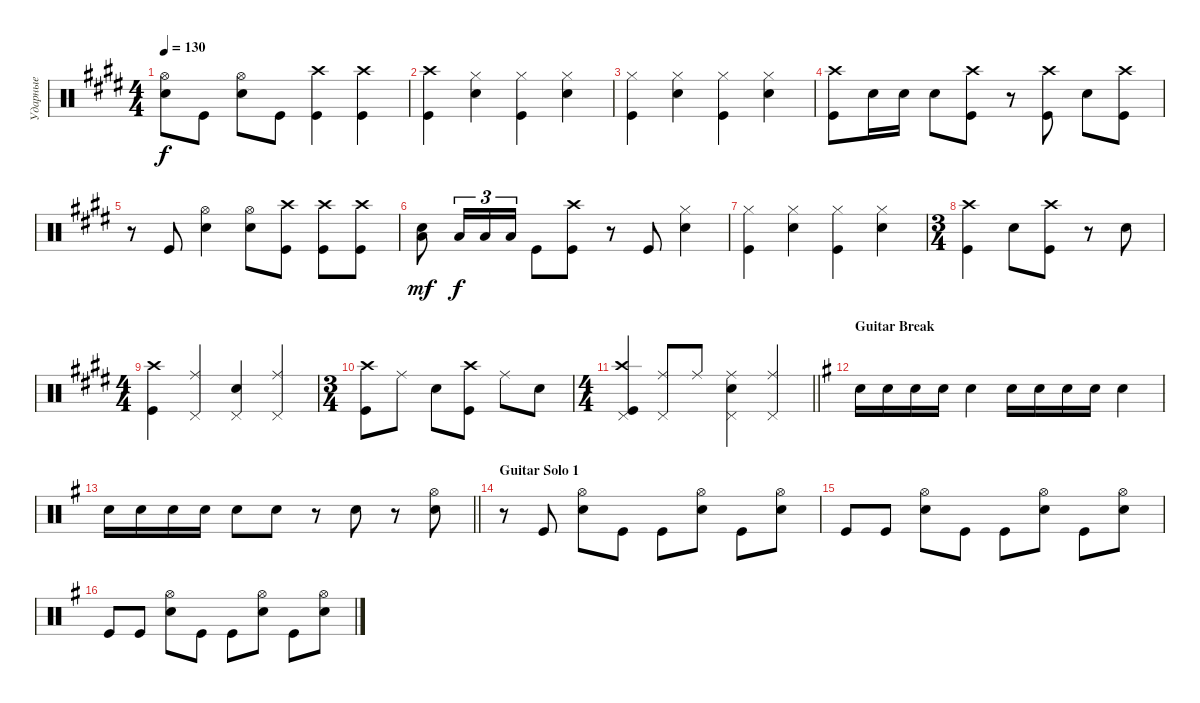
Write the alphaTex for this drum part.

\track ("Ударные" "Ударные") {instrument percussion}
\staff {score}
\articulation defaults
\ts (4 4)
\tempo 130
\clef neutral
\ks c#minor
("Snare (hit) 2" "Hi-Hat (open)").8{dy f} "Kick (hit)".8 ("Snare (hit) 2" "Hi-Hat (open)").8 "Kick (hit)".8 ("Kick (hit)" "Crash high (hit)").4 ("Kick (hit)" "Crash high (hit)").4 |
("Kick (hit)" "Crash high (hit)").4 ("Snare (hit) 2" "Hi-Hat (closed)").4 ("Kick (hit)" "Hi-Hat (closed)").4 ("Snare (hit) 2" "Hi-Hat (closed)").4 |
("Kick (hit)" "Hi-Hat (closed)").4 ("Snare (hit) 2" "Hi-Hat (closed)").4 ("Kick (hit)" "Hi-Hat (closed)").4 ("Snare (hit) 2" "Hi-Hat (closed)").4 |
("Kick (hit)" "Crash high (hit)").8 "Snare (hit) 2".16 "Snare (hit) 2".16 "Snare (hit) 2".8 ("Kick (hit)" "Crash high (hit)").8 r.8 ("Kick (hit)" "Crash high (hit)").8 "Snare (hit) 2".8 ("Kick (hit)" "Crash high (hit)").8 |
r.8 "Kick (hit)".8 ("Snare (hit) 2" "Hi-Hat (open)").4 ("Snare (hit) 2" "Hi-Hat (open)").8 ("Crash high (hit)" "Kick (hit)").8 ("Kick (hit)" "Crash high (hit)").8 ("Kick (hit)" "Crash high (hit)").8 |
("Low Tom (hit)" "Snare (hit) 2").8{bd 120 dy mf} "Low Tom (hit)".16{tu (3 2) dy f} "Low Tom (hit)".16{tu (3 2)} "Low Tom (hit)".16{tu (3 2)} "Kick (hit)".8 ("Kick (hit)" "Crash high (hit)").8 r.8 "Kick (hit)".8 ("Snare (hit) 2" "Hi-Hat (closed)").4 |
("Kick (hit)" "Hi-Hat (closed)").4 ("Snare (hit) 2" "Hi-Hat (closed)").4 ("Kick (hit)" "Hi-Hat (closed)").4 ("Snare (hit) 2" "Hi-Hat (closed)").4 |
\ts (3 4)
("Kick (hit)" "Crash high (hit)").4 "Snare (hit) 2".8 ("Kick (hit)" "Crash high (hit)").8 r.8 "Snare (hit) 2".8 |
\ts (4 4)
("Kick (hit)" "Crash high (hit)").4 ("Pedal Hi-Hat (hit)" "Ride (middle)").4 ("Pedal Hi-Hat (hit)" "Snare (hit) 2").4 ("Pedal Hi-Hat (hit)" "Ride (middle)").4 |
\ts (3 4)
("Kick (hit)" "Crash high (hit)").8 "Ride (middle)".8 "Snare (hit) 2".8 ("Kick (hit)" "Crash high (hit)").8 "Ride (middle)".8 "Snare (hit) 2".8 |
\ts (4 4)
\barLineRight lightlight
("Kick (hit)" "Crash high (hit)" "Pedal Hi-Hat (hit)").4 ("Ride (middle)" "Pedal Hi-Hat (hit)").8 "Ride (middle)".8 ("Snare (hit) 2" "Ride (middle)" "Pedal Hi-Hat (hit)").4 ("Ride (middle)" "Pedal Hi-Hat (hit)").4 |
\section ("" "Guitar Break")
\ks eminor "Snare (hit) 2".16 "Snare (hit) 2".16 "Snare (hit) 2".16 "Snare (hit) 2".16 "Snare (hit) 2".4 "Snare (hit) 2".16 "Snare (hit) 2".16 "Snare (hit) 2".16 "Snare (hit) 2".16 "Snare (hit) 2".4
|
\barLineRight lightlight "Snare (hit) 2".16 "Snare (hit) 2".16 "Snare (hit) 2".16 "Snare (hit) 2".16 "Snare (hit) 2".8 "Snare (hit) 2".8
r.8 "Snare (hit) 2".8 r.8 ("Snare (hit) 2" "Hi-Hat (open)").8 |
\section ("" "Guitar Solo 1")
r.8 "Kick (hit)".8 ("Snare (hit) 2" "Hi-Hat (open)").8 "Kick (hit)".8 "Kick (hit)".8 ("Snare (hit) 2" "Hi-Hat (open)").8 "Kick (hit)".8 ("Snare (hit) 2" "Hi-Hat (open)").8 |
"Kick (hit)".8 "Kick (hit)".8 ("Snare (hit) 2" "Hi-Hat (open)").8 "Kick (hit)".8 "Kick (hit)".8 ("Snare (hit) 2" "Hi-Hat (open)").8 "Kick (hit)".8 ("Snare (hit) 2" "Hi-Hat (open)").8 |
"Kick (hit)".8 "Kick (hit)".8 ("Snare (hit) 2" "Hi-Hat (open)").8 "Kick (hit)".8 "Kick (hit)".8 ("Snare (hit) 2" "Hi-Hat (open)").8 "Kick (hit)".8 ("Snare (hit) 2" "Hi-Hat (open)").8
